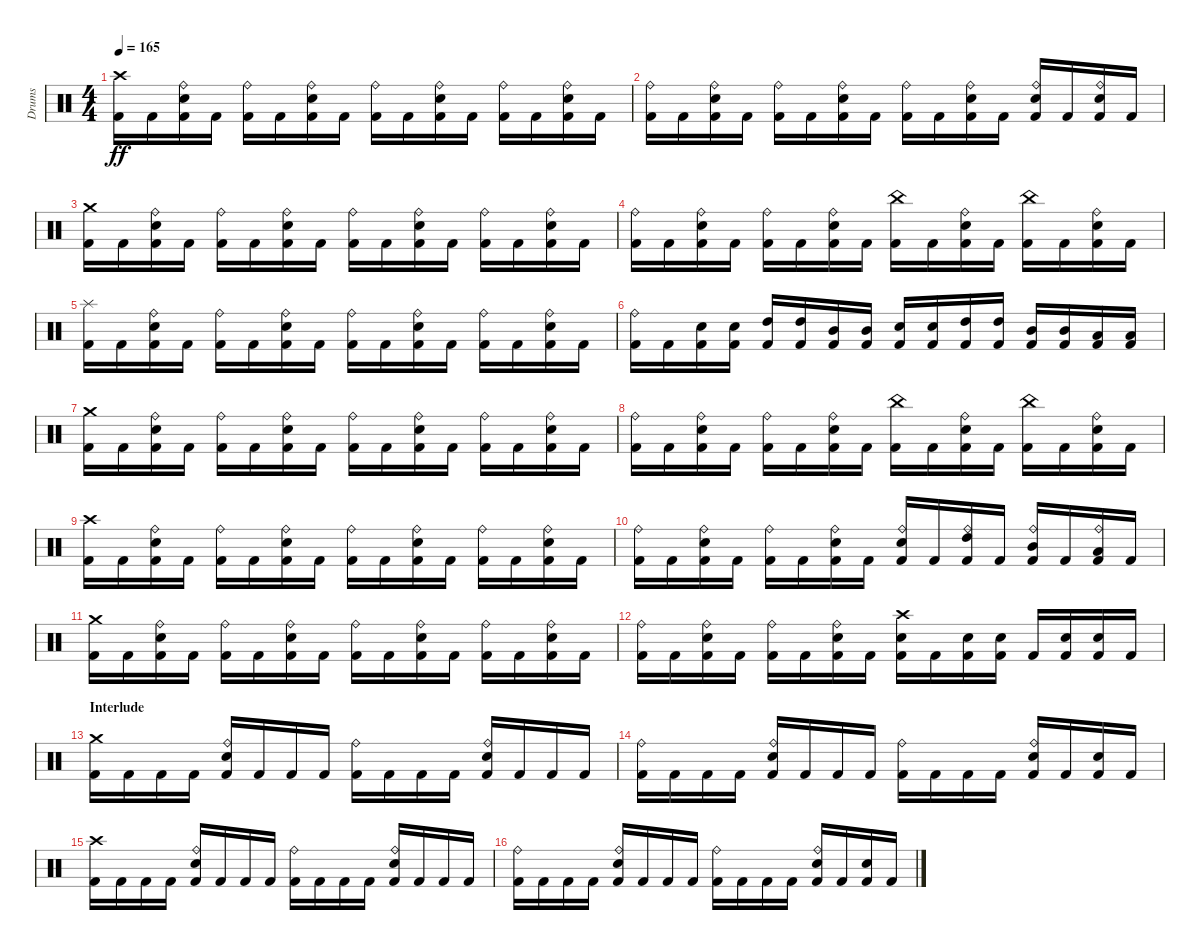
\track ("Drums" "Drums") {instrument percussion}
\staff {score}
\articulation defaults
\ts (4 4)
\tempo 165
\clef neutral
\ks c
("Crash high (hit)" "Kick (hit) 2").16{dy ff} "Kick (hit) 2".16 ("Ride (bell)" "Electric Snare (hit)" "Kick (hit) 2").16 "Kick (hit) 2".16 ("Ride (bell)" "Kick (hit) 2").16 "Kick (hit) 2".16 ("Ride (bell)" "Electric Snare (hit)" "Kick (hit) 2").16 "Kick (hit) 2".16 ("Ride (bell)" "Kick (hit) 2").16 "Kick (hit) 2".16 ("Ride (bell)" "Electric Snare (hit)" "Kick (hit) 2").16 "Kick (hit) 2".16 ("Ride (bell)" "Kick (hit) 2").16 "Kick (hit) 2".16 ("Ride (bell)" "Electric Snare (hit)" "Kick (hit) 2").16 "Kick (hit) 2".16 |
("Ride (bell)" "Kick (hit) 2").16 "Kick (hit) 2".16 ("Ride (bell)" "Electric Snare (hit)" "Kick (hit) 2").16 "Kick (hit) 2".16 ("Ride (bell)" "Kick (hit) 2").16 "Kick (hit) 2".16 ("Ride (bell)" "Electric Snare (hit)" "Kick (hit) 2").16 "Kick (hit) 2".16 ("Ride (bell)" "Kick (hit) 2").16 "Kick (hit) 2".16 ("Ride (bell)" "Electric Snare (hit)" "Kick (hit) 2").16 "Kick (hit) 2".16 ("Ride (bell)" "Electric Snare (hit)" "Kick (hit) 2").16 "Kick (hit) 2".16 ("Ride (bell)" "Electric Snare (hit)" "Kick (hit) 2").16 "Kick (hit) 2".16 |
("Crash medium (hit)" "Kick (hit) 2").16 "Kick (hit) 2".16 ("Ride (bell)" "Electric Snare (hit)" "Kick (hit) 2").16 "Kick (hit) 2".16 ("Ride (bell)" "Kick (hit) 2").16 "Kick (hit) 2".16 ("Ride (bell)" "Electric Snare (hit)" "Kick (hit) 2").16 "Kick (hit) 2".16 ("Ride (bell)" "Kick (hit) 2").16 "Kick (hit) 2".16 ("Ride (bell)" "Electric Snare (hit)" "Kick (hit) 2").16 "Kick (hit) 2".16 ("Ride (bell)" "Kick (hit) 2").16 "Kick (hit) 2".16 ("Ride (bell)" "Electric Snare (hit)" "Kick (hit) 2").16 "Kick (hit) 2".16 |
("Ride (bell)" "Kick (hit) 2").16 "Kick (hit) 2".16 ("Ride (bell)" "Electric Snare (hit)" "Kick (hit) 2").16 "Kick (hit) 2".16 ("Ride (bell)" "Kick (hit) 2").16 "Kick (hit) 2".16 ("Ride (bell)" "Electric Snare (hit)" "Kick (hit) 2").16 "Kick (hit) 2".16 ("China (hit)" "Kick (hit) 2").16 "Kick (hit) 2".16 ("Ride (bell)" "Electric Snare (hit)" "Kick (hit) 2").16 "Kick (hit) 2".16 ("China (hit)" "Kick (hit) 2").16 "Kick (hit) 2".16 ("Ride (bell)" "Electric Snare (hit)" "Kick (hit) 2").16 "Kick (hit) 2".16 |
("Splash (hit)" "Kick (hit) 2").16 "Kick (hit) 2".16 ("Ride (bell)" "Electric Snare (hit)" "Kick (hit) 2").16 "Kick (hit) 2".16 ("Ride (bell)" "Kick (hit) 2").16 "Kick (hit) 2".16 ("Ride (bell)" "Electric Snare (hit)" "Kick (hit) 2").16 "Kick (hit) 2".16 ("Ride (bell)" "Kick (hit) 2").16 "Kick (hit) 2".16 ("Ride (bell)" "Electric Snare (hit)" "Kick (hit) 2").16 "Kick (hit) 2".16 ("Ride (bell)" "Kick (hit) 2").16 "Kick (hit) 2".16 ("Ride (bell)" "Electric Snare (hit)" "Kick (hit) 2").16 "Kick (hit) 2".16 |
("Ride (bell)" "Kick (hit) 2").16 "Kick (hit) 2".16 ("Electric Snare (hit)" "Kick (hit) 2").16 ("Electric Snare (hit)" "Kick (hit) 2").16 ("High Tom (hit)" "Kick (hit) 2").16 ("High Tom (hit)" "Kick (hit) 2").16 ("Mid Tom (hit)" "Kick (hit) 2").16 ("Mid Tom (hit)" "Kick (hit) 2").16 ("Electric Snare (hit)" "Kick (hit) 2").16 ("Electric Snare (hit)" "Kick (hit) 2").16 ("High Tom (hit)" "Kick (hit) 2").16 ("High Tom (hit)" "Kick (hit) 2").16 ("Mid Tom (hit)" "Kick (hit) 2").16 ("Mid Tom (hit)" "Kick (hit) 2").16 ("Low Tom (hit)" "Kick (hit) 2").16 ("Low Tom (hit)" "Kick (hit) 2").16 |
("Crash medium (hit)" "Kick (hit) 2").16 "Kick (hit) 2".16 ("Ride (bell)" "Electric Snare (hit)" "Kick (hit) 2").16 "Kick (hit) 2".16 ("Ride (bell)" "Kick (hit) 2").16 "Kick (hit) 2".16 ("Ride (bell)" "Electric Snare (hit)" "Kick (hit) 2").16 "Kick (hit) 2".16 ("Ride (bell)" "Kick (hit) 2").16 "Kick (hit) 2".16 ("Ride (bell)" "Electric Snare (hit)" "Kick (hit) 2").16 "Kick (hit) 2".16 ("Ride (bell)" "Kick (hit) 2").16 "Kick (hit) 2".16 ("Ride (bell)" "Electric Snare (hit)" "Kick (hit) 2").16 "Kick (hit) 2".16 |
("Ride (bell)" "Kick (hit) 2").16 "Kick (hit) 2".16 ("Ride (bell)" "Electric Snare (hit)" "Kick (hit) 2").16 "Kick (hit) 2".16 ("Ride (bell)" "Kick (hit) 2").16 "Kick (hit) 2".16 ("Ride (bell)" "Electric Snare (hit)" "Kick (hit) 2").16 "Kick (hit) 2".16 ("China (hit)" "Kick (hit) 2").16 "Kick (hit) 2".16 ("Ride (bell)" "Electric Snare (hit)" "Kick (hit) 2").16 "Kick (hit) 2".16 ("China (hit)" "Kick (hit) 2").16 "Kick (hit) 2".16 ("Ride (bell)" "Electric Snare (hit)" "Kick (hit) 2").16 "Kick (hit) 2".16 |
("Crash high (hit)" "Kick (hit) 2").16 "Kick (hit) 2".16 ("Ride (bell)" "Electric Snare (hit)" "Kick (hit) 2").16 "Kick (hit) 2".16 ("Ride (bell)" "Kick (hit) 2").16 "Kick (hit) 2".16 ("Ride (bell)" "Electric Snare (hit)" "Kick (hit) 2").16 "Kick (hit) 2".16 ("Ride (bell)" "Kick (hit) 2").16 "Kick (hit) 2".16 ("Ride (bell)" "Electric Snare (hit)" "Kick (hit) 2").16 "Kick (hit) 2".16 ("Ride (bell)" "Kick (hit) 2").16 "Kick (hit) 2".16 ("Ride (bell)" "Electric Snare (hit)" "Kick (hit) 2").16 "Kick (hit) 2".16 |
("Ride (bell)" "Kick (hit) 2").16 "Kick (hit) 2".16 ("Ride (bell)" "Electric Snare (hit)" "Kick (hit) 2").16 "Kick (hit) 2".16 ("Ride (bell)" "Kick (hit) 2").16 "Kick (hit) 2".16 ("Ride (bell)" "Electric Snare (hit)" "Kick (hit) 2").16 "Kick (hit) 2".16 ("Ride (bell)" "Electric Snare (hit)" "Kick (hit) 2").16 "Kick (hit) 2".16 ("Ride (bell)" "High Tom (hit)" "Kick (hit) 2").16 "Kick (hit) 2".16 ("Ride (bell)" "Mid Tom (hit)" "Kick (hit) 2").16 "Kick (hit) 2".16 ("Ride (bell)" "Low Tom (hit)" "Kick (hit) 2").16 "Kick (hit) 2".16 |
("Crash medium (hit)" "Kick (hit) 2").16 "Kick (hit) 2".16 ("Ride (bell)" "Electric Snare (hit)" "Kick (hit) 2").16 "Kick (hit) 2".16 ("Ride (bell)" "Kick (hit) 2").16 "Kick (hit) 2".16 ("Ride (bell)" "Electric Snare (hit)" "Kick (hit) 2").16 "Kick (hit) 2".16 ("Ride (bell)" "Kick (hit) 2").16 "Kick (hit) 2".16 ("Ride (bell)" "Electric Snare (hit)" "Kick (hit) 2").16 "Kick (hit) 2".16 ("Ride (bell)" "Kick (hit) 2").16 "Kick (hit) 2".16 ("Ride (bell)" "Electric Snare (hit)" "Kick (hit) 2").16 "Kick (hit) 2".16 |
("Ride (bell)" "Kick (hit) 2").16 "Kick (hit) 2".16 ("Ride (bell)" "Electric Snare (hit)" "Kick (hit) 2").16 "Kick (hit) 2".16 ("Ride (bell)" "Kick (hit) 2").16 "Kick (hit) 2".16 ("Ride (bell)" "Electric Snare (hit)" "Kick (hit) 2").16 "Kick (hit) 2".16 ("Crash high (hit)" "Electric Snare (hit)" "Kick (hit) 2").16 "Kick (hit) 2".16 ("Electric Snare (hit)" "Kick (hit) 2").16 ("Electric Snare (hit)" "Kick (hit) 2").16 "Kick (hit) 2".16 ("Electric Snare (hit)" "Kick (hit) 2").16 ("Electric Snare (hit)" "Kick (hit) 2").16 "Kick (hit) 2".16 |
\section ("" "Interlude")
("Crash medium (hit)" "Kick (hit) 2").16 "Kick (hit) 2".16 "Kick (hit) 2".16 "Kick (hit) 2".16 ("Ride (bell)" "Electric Snare (hit)" "Kick (hit) 2").16 "Kick (hit) 2".16 "Kick (hit) 2".16 "Kick (hit) 2".16 ("Ride (bell)" "Kick (hit) 2").16 "Kick (hit) 2".16 "Kick (hit) 2".16 "Kick (hit) 2".16 ("Ride (bell)" "Electric Snare (hit)" "Kick (hit) 2").16 "Kick (hit) 2".16 "Kick (hit) 2".16 "Kick (hit) 2".16 |
("Ride (bell)" "Kick (hit) 2").16 "Kick (hit) 2".16 "Kick (hit) 2".16 "Kick (hit) 2".16 ("Ride (bell)" "Electric Snare (hit)" "Kick (hit) 2").16 "Kick (hit) 2".16 "Kick (hit) 2".16 "Kick (hit) 2".16 ("Ride (bell)" "Kick (hit) 2").16 "Kick (hit) 2".16 "Kick (hit) 2".16 "Kick (hit) 2".16 ("Ride (bell)" "Electric Snare (hit)" "Kick (hit) 2").16 "Kick (hit) 2".16 ("Electric Snare (hit)" "Kick (hit) 2").16 "Kick (hit) 2".16 |
("Crash high (hit)" "Kick (hit) 2").16 "Kick (hit) 2".16 "Kick (hit) 2".16 "Kick (hit) 2".16 ("Ride (bell)" "Electric Snare (hit)" "Kick (hit) 2").16 "Kick (hit) 2".16 "Kick (hit) 2".16 "Kick (hit) 2".16 ("Ride (bell)" "Kick (hit) 2").16 "Kick (hit) 2".16 "Kick (hit) 2".16 "Kick (hit) 2".16 ("Ride (bell)" "Electric Snare (hit)" "Kick (hit) 2").16 "Kick (hit) 2".16 "Kick (hit) 2".16 "Kick (hit) 2".16 |
("Ride (bell)" "Kick (hit) 2").16 "Kick (hit) 2".16 "Kick (hit) 2".16 "Kick (hit) 2".16 ("Ride (bell)" "Electric Snare (hit)" "Kick (hit) 2").16 "Kick (hit) 2".16 "Kick (hit) 2".16 "Kick (hit) 2".16 ("Ride (bell)" "Kick (hit) 2").16 "Kick (hit) 2".16 "Kick (hit) 2".16 "Kick (hit) 2".16 ("Ride (bell)" "Electric Snare (hit)" "Kick (hit) 2").16 "Kick (hit) 2".16 ("Electric Snare (hit)" "Kick (hit) 2").16 "Kick (hit) 2".16
